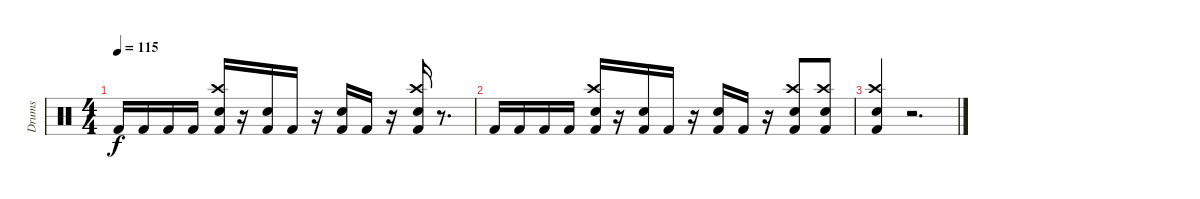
\track ("Drums" "Drums") {instrument percussion}
\staff {score}
\articulation defaults
\ts (4 4)
\tempo 115
\clef neutral
\ks c "Kick (hit) 2".16{dy f} "Kick (hit) 2".16 "Kick (hit) 2".16 "Kick (hit) 2".16
("Crash high (hit)" "Snare (hit) 2" "Kick (hit) 2").16 r.16 ("Snare (hit) 2" "Kick (hit) 2").16 "Kick (hit) 2".16 r.16 ("Snare (hit) 2" "Kick (hit) 2").16 "Kick (hit) 2".16 r.16 ("Crash high (hit)" "Snare (hit) 2" "Kick (hit) 2").16 r.8{d} |
"Kick (hit) 2".16 "Kick (hit) 2".16 "Kick (hit) 2".16 "Kick (hit) 2".16 ("Crash high (hit)" "Snare (hit) 2" "Kick (hit) 2").16 r.16 ("Snare (hit) 2" "Kick (hit) 2").16 "Kick (hit) 2".16 r.16 ("Snare (hit) 2" "Kick (hit) 2").16 "Kick (hit) 2".16 r.16 ("Crash high (hit)" "Snare (hit) 2" "Kick (hit) 2").8 ("Crash high (hit)" "Snare (hit) 2" "Kick (hit) 2").8 |
("Crash high (hit)" "Snare (hit) 2" "Kick (hit) 2").4 r.2{d}
